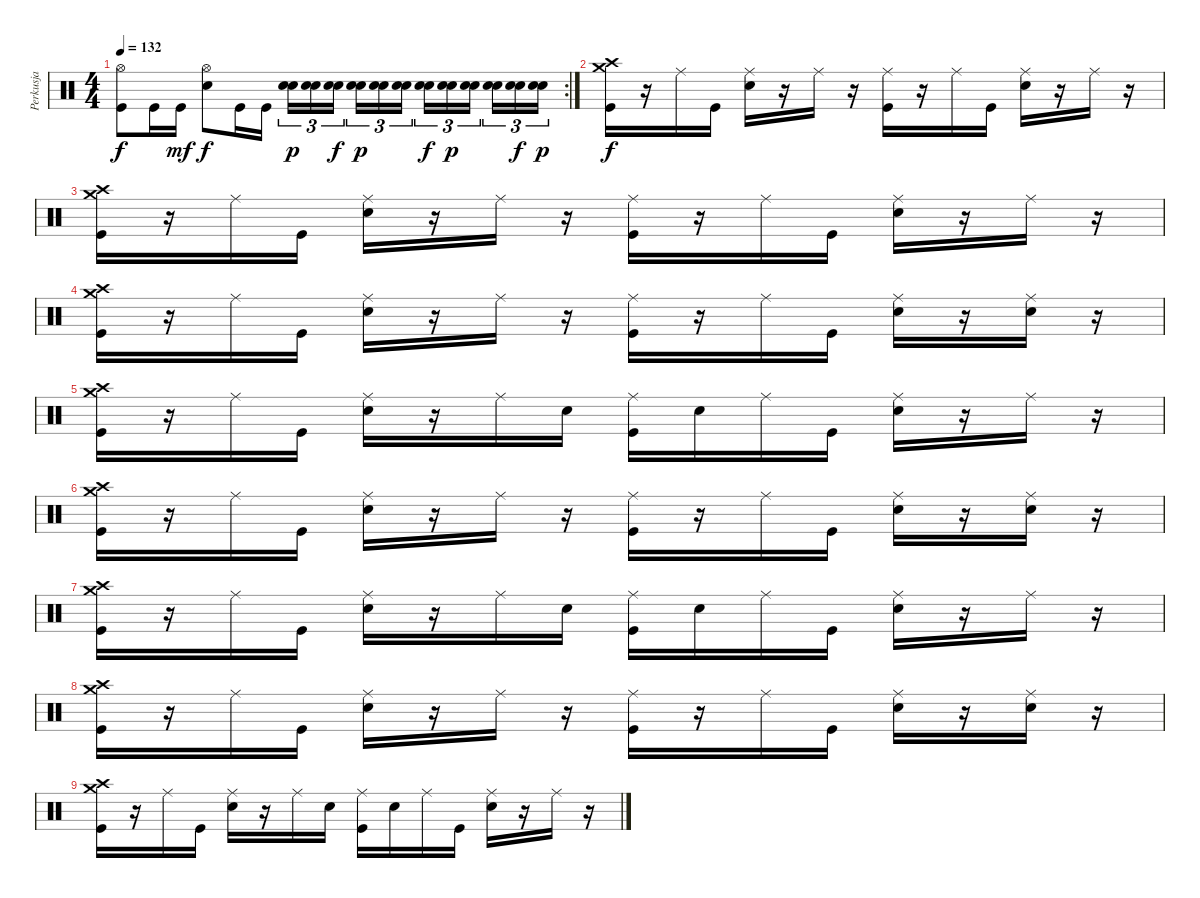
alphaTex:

\track ("Perkusja" "Perkusja") {instrument percussion}
\staff {score}
\articulation defaults
\rc 2
\ts (4 4)
\tempo 132
\clef neutral
\ks c
("Hi-Hat (open)" "Kick (hit)").8{dy f} "Kick (hit)".16 "Kick (hit)".16{dy mf} ("Hi-Hat (open)" "Electric Snare (hit)").8{dy f} "Kick (hit)".16 "Kick (hit)".16 ("Electric Snare (hit)" "Electric Snare (hit)").16{tu (3 2) dy p} ("Electric Snare (hit)" "Electric Snare (hit)").16{tu (3 2)} ("Electric Snare (hit)" "Electric Snare (hit)").16{tu (3 2) dy f} ("Electric Snare (hit)" "Electric Snare (hit)").16{tu (3 2) dy p} ("Electric Snare (hit)" "Electric Snare (hit)").16{tu (3 2)} ("Electric Snare (hit)" "Electric Snare (hit)").16{tu (3 2)} ("Electric Snare (hit)" "Electric Snare (hit)").16{tu (3 2) dy f} ("Electric Snare (hit)" "Electric Snare (hit)").16{tu (3 2) dy p} ("Electric Snare (hit)" "Electric Snare (hit)").16{tu (3 2)} ("Electric Snare (hit)" "Electric Snare (hit)").16{tu (3 2)} ("Electric Snare (hit)" "Electric Snare (hit)").16{tu (3 2) dy f} ("Electric Snare (hit)" "Electric Snare (hit)").16{tu (3 2) dy p} |
("Crash high (hit)" "Crash medium (hit)" "Kick (hit)").16{dy f} r.16 "Ride (middle)".16 "Kick (hit)".16 ("Ride (middle)" "Electric Snare (hit)").16 r.16 "Ride (middle)".16 r.16 ("Ride (middle)" "Kick (hit)").16 r.16 "Ride (middle)".16 "Kick (hit)".16 ("Ride (middle)" "Electric Snare (hit)").16 r.16 "Ride (middle)".16 r.16 |
("Crash high (hit)" "Crash medium (hit)" "Kick (hit)").16 r.16 "Ride (middle)".16 "Kick (hit)".16 ("Ride (middle)" "Electric Snare (hit)").16 r.16 "Ride (middle)".16 r.16 ("Ride (middle)" "Kick (hit)").16 r.16 "Ride (middle)".16 "Kick (hit)".16 ("Ride (middle)" "Electric Snare (hit)").16 r.16 "Ride (middle)".16 r.16 |
("Crash high (hit)" "Crash medium (hit)" "Kick (hit)").16 r.16 "Ride (middle)".16 "Kick (hit)".16 ("Ride (middle)" "Electric Snare (hit)").16 r.16 "Ride (middle)".16 r.16 ("Ride (middle)" "Kick (hit)").16 r.16 "Ride (middle)".16 "Kick (hit)".16 ("Ride (middle)" "Electric Snare (hit)").16 r.16 ("Ride (middle)" "Electric Snare (hit)").16 r.16 |
("Crash high (hit)" "Crash medium (hit)" "Kick (hit)").16 r.16 "Ride (middle)".16 "Kick (hit)".16 ("Ride (middle)" "Electric Snare (hit)").16 r.16 "Ride (middle)".16 "Electric Snare (hit)".16 ("Ride (middle)" "Kick (hit)").16 "Electric Snare (hit)".16 "Ride (middle)".16 "Kick (hit)".16 ("Ride (middle)" "Electric Snare (hit)").16 r.16 "Ride (middle)".16 r.16 |
("Crash high (hit)" "Crash medium (hit)" "Kick (hit)").16 r.16 "Ride (middle)".16 "Kick (hit)".16 ("Ride (middle)" "Electric Snare (hit)").16 r.16 "Ride (middle)".16 r.16 ("Ride (middle)" "Kick (hit)").16 r.16 "Ride (middle)".16 "Kick (hit)".16 ("Ride (middle)" "Electric Snare (hit)").16 r.16 ("Ride (middle)" "Electric Snare (hit)").16 r.16 |
("Crash high (hit)" "Crash medium (hit)" "Kick (hit)").16 r.16 "Ride (middle)".16 "Kick (hit)".16 ("Ride (middle)" "Electric Snare (hit)").16 r.16 "Ride (middle)".16 "Electric Snare (hit)".16 ("Ride (middle)" "Kick (hit)").16 "Electric Snare (hit)".16 "Ride (middle)".16 "Kick (hit)".16 ("Ride (middle)" "Electric Snare (hit)").16 r.16 "Ride (middle)".16 r.16 |
("Crash high (hit)" "Crash medium (hit)" "Kick (hit)").16 r.16 "Ride (middle)".16 "Kick (hit)".16 ("Ride (middle)" "Electric Snare (hit)").16 r.16 "Ride (middle)".16 r.16 ("Ride (middle)" "Kick (hit)").16 r.16 "Ride (middle)".16 "Kick (hit)".16 ("Ride (middle)" "Electric Snare (hit)").16 r.16 ("Ride (middle)" "Electric Snare (hit)").16 r.16 |
("Crash high (hit)" "Crash medium (hit)" "Kick (hit)").16 r.16 "Ride (middle)".16 "Kick (hit)".16 ("Ride (middle)" "Electric Snare (hit)").16 r.16 "Ride (middle)".16 "Electric Snare (hit)".16 ("Ride (middle)" "Kick (hit)").16 "Electric Snare (hit)".16 "Ride (middle)".16 "Kick (hit)".16 ("Ride (middle)" "Electric Snare (hit)").16 r.16 "Ride (middle)".16 r.16
